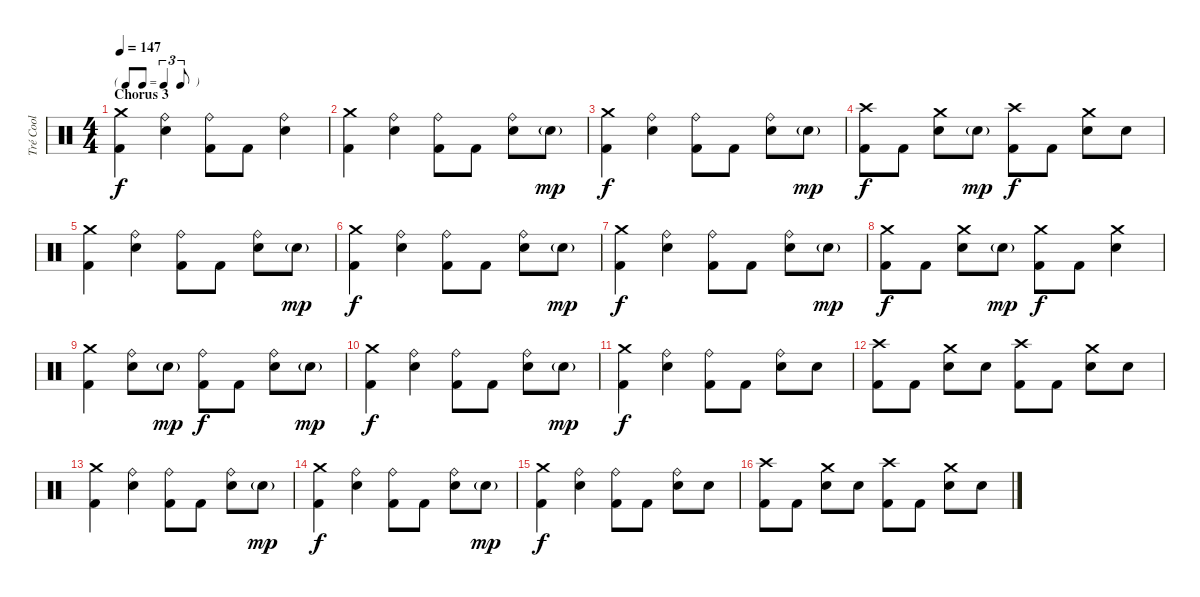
\track ("Tré Cool" "Tré Cool") {instrument percussion}
\staff {score}
\articulation defaults
\ts (4 4)
\tf triplet8th
\section ("" "Chorus 3")
\tempo 147
\clef neutral
\ks c
("Crash medium (hit)" "Kick (hit) 2").4{dy f} ("Ride (bell)" "Snare (hit) 2").4 ("Ride (bell)" "Kick (hit) 2").8 "Kick (hit) 2".8 ("Ride (bell)" "Snare (hit) 2").4 |
("Crash medium (hit)" "Kick (hit) 2").4 ("Ride (bell)" "Snare (hit) 2").4 ("Ride (bell)" "Kick (hit) 2").8 "Kick (hit) 2".8 ("Ride (bell)" "Snare (hit) 2").8 "Snare (hit) 2"{g}.8{dy mp} |
("Crash medium (hit)" "Kick (hit) 2").4{dy f} ("Ride (bell)" "Snare (hit) 2").4 ("Ride (bell)" "Kick (hit) 2").8 "Kick (hit) 2".8 ("Ride (bell)" "Snare (hit) 2").8 "Snare (hit) 2"{g}.8{dy mp} |
("Crash high (hit)" "Kick (hit) 2").8{dy f} "Kick (hit) 2".8 ("Crash medium (hit)" "Snare (hit) 2").8 "Snare (hit) 2"{g}.8{dy mp} ("Crash high (hit)" "Kick (hit) 2").8{dy f} "Kick (hit) 2".8 ("Crash medium (hit)" "Snare (hit) 2").8 "Snare (hit) 2".8 |
("Crash medium (hit)" "Kick (hit) 2").4 ("Ride (bell)" "Snare (hit) 2").4 ("Ride (bell)" "Kick (hit) 2").8 "Kick (hit) 2".8 ("Ride (bell)" "Snare (hit) 2").8 "Snare (hit) 2"{g}.8{dy mp} |
("Crash medium (hit)" "Kick (hit) 2").4{dy f} ("Ride (bell)" "Snare (hit) 2").4 ("Ride (bell)" "Kick (hit) 2").8 "Kick (hit) 2".8 ("Ride (bell)" "Snare (hit) 2").8 "Snare (hit) 2"{g}.8{dy mp} |
("Crash medium (hit)" "Kick (hit) 2").4{dy f} ("Ride (bell)" "Snare (hit) 2").4 ("Ride (bell)" "Kick (hit) 2").8 "Kick (hit) 2".8 ("Ride (bell)" "Snare (hit) 2").8 "Snare (hit) 2"{g}.8{dy mp} |
("Crash medium (hit)" "Kick (hit) 2").8{dy f} "Kick (hit) 2".8 ("Crash medium (hit)" "Snare (hit) 2").8 "Snare (hit) 2"{g}.8{dy mp} ("Crash medium (hit)" "Kick (hit) 2").8{dy f} "Kick (hit) 2".8 ("Crash medium (hit)" "Snare (hit) 2").4 |
("Crash medium (hit)" "Kick (hit) 2").4 ("Ride (bell)" "Snare (hit) 2").8 "Snare (hit) 2"{g}.8{dy mp} ("Ride (bell)" "Kick (hit) 2").8{dy f} "Kick (hit) 2".8 ("Ride (bell)" "Snare (hit) 2").8 "Snare (hit) 2"{g}.8{dy mp} |
("Crash medium (hit)" "Kick (hit) 2").4{dy f} ("Ride (bell)" "Snare (hit) 2").4 ("Ride (bell)" "Kick (hit) 2").8 "Kick (hit) 2".8 ("Ride (bell)" "Snare (hit) 2").8 "Snare (hit) 2"{g}.8{dy mp} |
("Crash medium (hit)" "Kick (hit) 2").4{dy f} ("Ride (bell)" "Snare (hit) 2").4 ("Ride (bell)" "Kick (hit) 2").8 "Kick (hit) 2".8 ("Ride (bell)" "Snare (hit) 2").8 "Snare (hit) 2".8 |
("Crash high (hit)" "Kick (hit) 2").8 "Kick (hit) 2".8 ("Crash medium (hit)" "Snare (hit) 2").8 "Snare (hit) 2".8 ("Crash high (hit)" "Kick (hit) 2").8 "Kick (hit) 2".8 ("Crash medium (hit)" "Snare (hit) 2").8 "Snare (hit) 2".8 |
("Crash medium (hit)" "Kick (hit) 2").4 ("Ride (bell)" "Snare (hit) 2").4 ("Ride (bell)" "Kick (hit) 2").8 "Kick (hit) 2".8 ("Ride (bell)" "Snare (hit) 2").8 "Snare (hit) 2"{g}.8{dy mp} |
("Crash medium (hit)" "Kick (hit) 2").4{dy f} ("Ride (bell)" "Snare (hit) 2").4 ("Ride (bell)" "Kick (hit) 2").8 "Kick (hit) 2".8 ("Ride (bell)" "Snare (hit) 2").8 "Snare (hit) 2"{g}.8{dy mp} |
("Crash medium (hit)" "Kick (hit) 2").4{dy f} ("Ride (bell)" "Snare (hit) 2").4 ("Ride (bell)" "Kick (hit) 2").8 "Kick (hit) 2".8 ("Ride (bell)" "Snare (hit) 2").8 "Snare (hit) 2".8 |
("Crash high (hit)" "Kick (hit) 2").8 "Kick (hit) 2".8 ("Crash medium (hit)" "Snare (hit) 2").8 "Snare (hit) 2".8 ("Crash high (hit)" "Kick (hit) 2").8 "Kick (hit) 2".8 ("Crash medium (hit)" "Snare (hit) 2").8 "Snare (hit) 2".8
